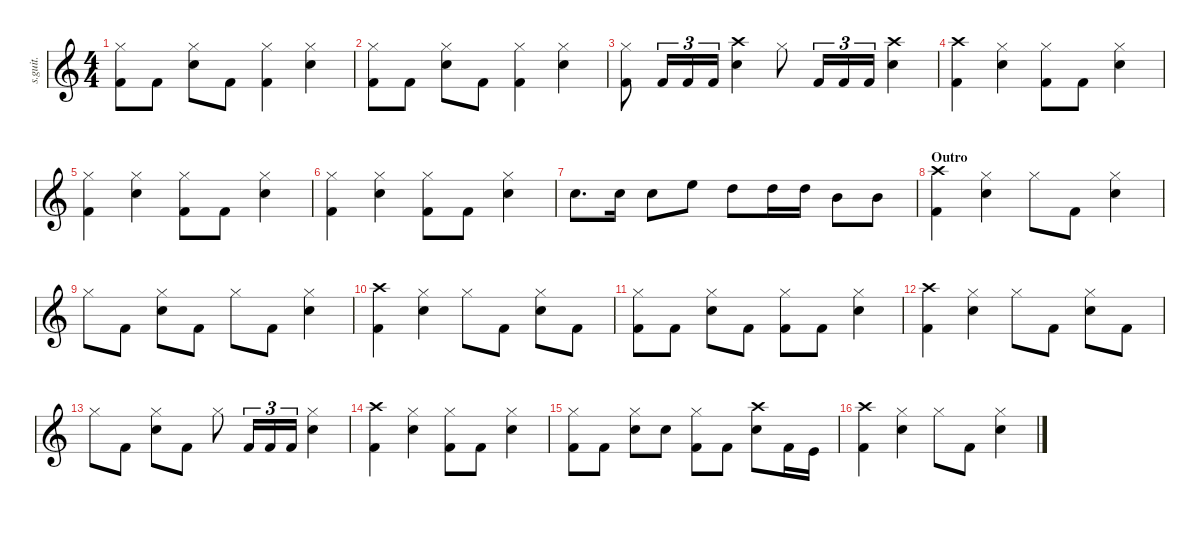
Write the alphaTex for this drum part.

\defaultSystemsLayout 4
\hideDynamics
\bracketExtendMode nobrackets
\track ("Lars Ulrich - Drumzzz" "s.guit.") {instrument percussion}
\staff {score}
\articulation defaults
\ts (4 4)
\tempo (142 hide)
\clef g2
\ks c
("Hi-Hat (closed)" "Kick (hit) 2").8{lyrics (0 "") lyrics (1 "") lyrics (2 "") lyrics (3 "") lyrics (4 "") dy f} "Kick (hit) 2".8{lyrics (0 "") lyrics (1 "") lyrics (2 "") lyrics (3 "") lyrics (4 "")} ("Hi-Hat (closed)" "Snare (hit) 2").8{lyrics (0 "") lyrics (1 "") lyrics (2 "") lyrics (3 "") lyrics (4 "")} "Kick (hit) 2".8{lyrics (0 "") lyrics (1 "") lyrics (2 "") lyrics (3 "") lyrics (4 "")} ("Hi-Hat (closed)" "Kick (hit) 2").4{lyrics (0 "") lyrics (1 "") lyrics (2 "") lyrics (3 "") lyrics (4 "")} ("Hi-Hat (closed)" "Snare (hit) 2").4{lyrics (0 "") lyrics (1 "") lyrics (2 "") lyrics (3 "") lyrics (4 "")} |
("Hi-Hat (closed)" "Kick (hit) 2").8{lyrics (0 "") lyrics (1 "") lyrics (2 "") lyrics (3 "") lyrics (4 "")} "Kick (hit) 2".8{lyrics (0 "") lyrics (1 "") lyrics (2 "") lyrics (3 "") lyrics (4 "")} ("Hi-Hat (closed)" "Snare (hit) 2").8{lyrics (0 "") lyrics (1 "") lyrics (2 "") lyrics (3 "") lyrics (4 "")} "Kick (hit) 2".8{lyrics (0 "") lyrics (1 "") lyrics (2 "") lyrics (3 "") lyrics (4 "")} ("Hi-Hat (closed)" "Kick (hit) 2").4{lyrics (0 "") lyrics (1 "") lyrics (2 "") lyrics (3 "") lyrics (4 "")} ("Hi-Hat (closed)" "Snare (hit) 2").4{lyrics (0 "") lyrics (1 "") lyrics (2 "") lyrics (3 "") lyrics (4 "")} |
("Hi-Hat (closed)" "Kick (hit) 2").8{lyrics (0 "") lyrics (1 "") lyrics (2 "") lyrics (3 "") lyrics (4 "")} "Kick (hit) 2".16{tu (3 2) lyrics (0 "") lyrics (1 "") lyrics (2 "") lyrics (3 "") lyrics (4 "")} "Kick (hit) 2".16{tu (3 2) lyrics (0 "") lyrics (1 "") lyrics (2 "") lyrics (3 "") lyrics (4 "")} "Kick (hit) 2".16{tu (3 2) lyrics (0 "") lyrics (1 "") lyrics (2 "") lyrics (3 "") lyrics (4 "")} ("Crash high (hit)" "Snare (hit) 2").4{lyrics (0 "") lyrics (1 "") lyrics (2 "") lyrics (3 "") lyrics (4 "")} "Hi-Hat (closed)".8{lyrics (0 "") lyrics (1 "") lyrics (2 "") lyrics (3 "") lyrics (4 "")} "Kick (hit) 2".16{tu (3 2) lyrics (0 "") lyrics (1 "") lyrics (2 "") lyrics (3 "") lyrics (4 "")} "Kick (hit) 2".16{tu (3 2) lyrics (0 "") lyrics (1 "") lyrics (2 "") lyrics (3 "") lyrics (4 "")} "Kick (hit) 2".16{tu (3 2) lyrics (0 "") lyrics (1 "") lyrics (2 "") lyrics (3 "") lyrics (4 "")} ("Crash high (hit)" "Snare (hit) 2").4{lyrics (0 "") lyrics (1 "") lyrics (2 "") lyrics (3 "") lyrics (4 "")} |
("Crash high (hit)" "Kick (hit) 2").4{lyrics (0 "") lyrics (1 "") lyrics (2 "") lyrics (3 "") lyrics (4 "")} ("Hi-Hat (closed)" "Snare (hit) 2").4{lyrics (0 "") lyrics (1 "") lyrics (2 "") lyrics (3 "") lyrics (4 "")} ("Hi-Hat (closed)" "Kick (hit) 2").8{lyrics (0 "") lyrics (1 "") lyrics (2 "") lyrics (3 "") lyrics (4 "")} "Kick (hit) 2".8{lyrics (0 "") lyrics (1 "") lyrics (2 "") lyrics (3 "") lyrics (4 "")} ("Hi-Hat (closed)" "Snare (hit) 2").4{lyrics (0 "") lyrics (1 "") lyrics (2 "") lyrics (3 "") lyrics (4 "")} |
("Hi-Hat (closed)" "Kick (hit) 2").4{lyrics (0 "") lyrics (1 "") lyrics (2 "") lyrics (3 "") lyrics (4 "")} ("Hi-Hat (closed)" "Snare (hit) 2").4{lyrics (0 "") lyrics (1 "") lyrics (2 "") lyrics (3 "") lyrics (4 "")} ("Hi-Hat (closed)" "Kick (hit) 2").8{lyrics (0 "") lyrics (1 "") lyrics (2 "") lyrics (3 "") lyrics (4 "")} "Kick (hit) 2".8{lyrics (0 "") lyrics (1 "") lyrics (2 "") lyrics (3 "") lyrics (4 "")} ("Hi-Hat (closed)" "Snare (hit) 2").4{lyrics (0 "") lyrics (1 "") lyrics (2 "") lyrics (3 "") lyrics (4 "")} |
("Hi-Hat (closed)" "Kick (hit) 2").4{lyrics (0 "") lyrics (1 "") lyrics (2 "") lyrics (3 "") lyrics (4 "")} ("Hi-Hat (closed)" "Snare (hit) 2").4{lyrics (0 "") lyrics (1 "") lyrics (2 "") lyrics (3 "") lyrics (4 "")} ("Hi-Hat (closed)" "Kick (hit) 2").8{lyrics (0 "") lyrics (1 "") lyrics (2 "") lyrics (3 "") lyrics (4 "")} "Kick (hit) 2".8{lyrics (0 "") lyrics (1 "") lyrics (2 "") lyrics (3 "") lyrics (4 "")} ("Hi-Hat (closed)" "Snare (hit) 2").4{lyrics (0 "") lyrics (1 "") lyrics (2 "") lyrics (3 "") lyrics (4 "")} |
"Snare (hit) 2".8{d lyrics (0 "") lyrics (1 "") lyrics (2 "") lyrics (3 "") lyrics (4 "")} "Snare (hit) 2".16{lyrics (0 "") lyrics (1 "") lyrics (2 "") lyrics (3 "") lyrics (4 "")} "Snare (hit) 2".8{lyrics (0 "") lyrics (1 "") lyrics (2 "") lyrics (3 "") lyrics (4 "")} "High Floor Tom (hit)".8{lyrics (0 "") lyrics (1 "") lyrics (2 "") lyrics (3 "") lyrics (4 "")} "High Tom (hit)".8{lyrics (0 "") lyrics (1 "") lyrics (2 "") lyrics (3 "") lyrics (4 "")} "High Tom (hit)".16{lyrics (0 "") lyrics (1 "") lyrics (2 "") lyrics (3 "") lyrics (4 "")} "High Tom (hit)".16{lyrics (0 "") lyrics (1 "") lyrics (2 "") lyrics (3 "") lyrics (4 "")} "Mid Tom (hit)".8{lyrics (0 "") lyrics (1 "") lyrics (2 "") lyrics (3 "") lyrics (4 "")} "Mid Tom (hit)".8{lyrics (0 "") lyrics (1 "") lyrics (2 "") lyrics (3 "") lyrics (4 "")} |
\section ("" "Outro")
("Crash high (hit)" "Kick (hit) 2").4{lyrics (0 "") lyrics (1 "") lyrics (2 "") lyrics (3 "") lyrics (4 "")} ("Hi-Hat (closed)" "Snare (hit) 2").4{lyrics (0 "") lyrics (1 "") lyrics (2 "") lyrics (3 "") lyrics (4 "")} "Hi-Hat (closed)".8{lyrics (0 "") lyrics (1 "") lyrics (2 "") lyrics (3 "") lyrics (4 "")} "Kick (hit) 2".8{lyrics (0 "") lyrics (1 "") lyrics (2 "") lyrics (3 "") lyrics (4 "")} ("Hi-Hat (closed)" "Snare (hit) 2").4{lyrics (0 "") lyrics (1 "") lyrics (2 "") lyrics (3 "") lyrics (4 "")} |
"Hi-Hat (closed)".8{lyrics (0 "") lyrics (1 "") lyrics (2 "") lyrics (3 "") lyrics (4 "")} "Kick (hit) 2".8{lyrics (0 "") lyrics (1 "") lyrics (2 "") lyrics (3 "") lyrics (4 "")} ("Hi-Hat (closed)" "Snare (hit) 2").8{lyrics (0 "") lyrics (1 "") lyrics (2 "") lyrics (3 "") lyrics (4 "")} "Kick (hit) 2".8{lyrics (0 "") lyrics (1 "") lyrics (2 "") lyrics (3 "") lyrics (4 "")} "Hi-Hat (closed)".8{lyrics (0 "") lyrics (1 "") lyrics (2 "") lyrics (3 "") lyrics (4 "")} "Kick (hit) 2".8{lyrics (0 "") lyrics (1 "") lyrics (2 "") lyrics (3 "") lyrics (4 "")} ("Hi-Hat (closed)" "Snare (hit) 2").4{lyrics (0 "") lyrics (1 "") lyrics (2 "") lyrics (3 "") lyrics (4 "")} |
("Crash high (hit)" "Kick (hit) 2").4{lyrics (0 "") lyrics (1 "") lyrics (2 "") lyrics (3 "") lyrics (4 "")} ("Hi-Hat (closed)" "Snare (hit) 2").4{lyrics (0 "") lyrics (1 "") lyrics (2 "") lyrics (3 "") lyrics (4 "")} "Hi-Hat (closed)".8{lyrics (0 "") lyrics (1 "") lyrics (2 "") lyrics (3 "") lyrics (4 "")} "Kick (hit) 2".8{lyrics (0 "") lyrics (1 "") lyrics (2 "") lyrics (3 "") lyrics (4 "")} ("Hi-Hat (closed)" "Snare (hit) 2").8{lyrics (0 "") lyrics (1 "") lyrics (2 "") lyrics (3 "") lyrics (4 "")} "Kick (hit) 2".8{lyrics (0 "") lyrics (1 "") lyrics (2 "") lyrics (3 "") lyrics (4 "")} |
("Hi-Hat (closed)" "Kick (hit) 2").8{lyrics (0 "") lyrics (1 "") lyrics (2 "") lyrics (3 "") lyrics (4 "")} "Kick (hit) 2".8{lyrics (0 "") lyrics (1 "") lyrics (2 "") lyrics (3 "") lyrics (4 "")} ("Hi-Hat (closed)" "Snare (hit) 2").8{lyrics (0 "") lyrics (1 "") lyrics (2 "") lyrics (3 "") lyrics (4 "")} "Kick (hit) 2".8{lyrics (0 "") lyrics (1 "") lyrics (2 "") lyrics (3 "") lyrics (4 "")} ("Hi-Hat (closed)" "Kick (hit) 2").8{lyrics (0 "") lyrics (1 "") lyrics (2 "") lyrics (3 "") lyrics (4 "")} "Kick (hit) 2".8{lyrics (0 "") lyrics (1 "") lyrics (2 "") lyrics (3 "") lyrics (4 "")} ("Hi-Hat (closed)" "Snare (hit) 2").4{lyrics (0 "") lyrics (1 "") lyrics (2 "") lyrics (3 "") lyrics (4 "")} |
("Crash high (hit)" "Kick (hit) 2").4{lyrics (0 "") lyrics (1 "") lyrics (2 "") lyrics (3 "") lyrics (4 "")} ("Hi-Hat (closed)" "Snare (hit) 2").4{lyrics (0 "") lyrics (1 "") lyrics (2 "") lyrics (3 "") lyrics (4 "")} "Hi-Hat (closed)".8{lyrics (0 "") lyrics (1 "") lyrics (2 "") lyrics (3 "") lyrics (4 "")} "Kick (hit) 2".8{lyrics (0 "") lyrics (1 "") lyrics (2 "") lyrics (3 "") lyrics (4 "")} ("Hi-Hat (closed)" "Snare (hit) 2").8{lyrics (0 "") lyrics (1 "") lyrics (2 "") lyrics (3 "") lyrics (4 "")} "Kick (hit) 2".8{lyrics (0 "") lyrics (1 "") lyrics (2 "") lyrics (3 "") lyrics (4 "")} |
"Hi-Hat (closed)".8{lyrics (0 "") lyrics (1 "") lyrics (2 "") lyrics (3 "") lyrics (4 "")} "Kick (hit) 2".8{lyrics (0 "") lyrics (1 "") lyrics (2 "") lyrics (3 "") lyrics (4 "")} ("Hi-Hat (closed)" "Snare (hit) 2").8{lyrics (0 "") lyrics (1 "") lyrics (2 "") lyrics (3 "") lyrics (4 "")} "Kick (hit) 2".8{lyrics (0 "") lyrics (1 "") lyrics (2 "") lyrics (3 "") lyrics (4 "")} "Hi-Hat (closed)".8{lyrics (0 "") lyrics (1 "") lyrics (2 "") lyrics (3 "") lyrics (4 "")} "Kick (hit) 2".16{tu (3 2) lyrics (0 "") lyrics (1 "") lyrics (2 "") lyrics (3 "") lyrics (4 "")} "Kick (hit) 2".16{tu (3 2) lyrics (0 "") lyrics (1 "") lyrics (2 "") lyrics (3 "") lyrics (4 "")} "Kick (hit) 2".16{tu (3 2) lyrics (0 "") lyrics (1 "") lyrics (2 "") lyrics (3 "") lyrics (4 "")} ("Hi-Hat (closed)" "Snare (hit) 2").4{lyrics (0 "") lyrics (1 "") lyrics (2 "") lyrics (3 "") lyrics (4 "")} |
("Crash high (hit)" "Kick (hit) 2").4{lyrics (0 "") lyrics (1 "") lyrics (2 "") lyrics (3 "") lyrics (4 "")} ("Hi-Hat (closed)" "Snare (hit) 2").4{lyrics (0 "") lyrics (1 "") lyrics (2 "") lyrics (3 "") lyrics (4 "")} ("Hi-Hat (closed)" "Kick (hit) 2").8{lyrics (0 "") lyrics (1 "") lyrics (2 "") lyrics (3 "") lyrics (4 "")} "Kick (hit) 2".8{lyrics (0 "") lyrics (1 "") lyrics (2 "") lyrics (3 "") lyrics (4 "")} ("Hi-Hat (closed)" "Snare (hit) 2").4{lyrics (0 "") lyrics (1 "") lyrics (2 "") lyrics (3 "") lyrics (4 "")} |
("Hi-Hat (closed)" "Kick (hit) 2").8{lyrics (0 "") lyrics (1 "") lyrics (2 "") lyrics (3 "") lyrics (4 "")} "Kick (hit) 2".8{lyrics (0 "") lyrics (1 "") lyrics (2 "") lyrics (3 "") lyrics (4 "")} ("Hi-Hat (closed)" "Snare (hit) 2").8{lyrics (0 "") lyrics (1 "") lyrics (2 "") lyrics (3 "") lyrics (4 "")} "Snare (hit) 2".8{lyrics (0 "") lyrics (1 "") lyrics (2 "") lyrics (3 "") lyrics (4 "")} ("Hi-Hat (closed)" "Kick (hit) 2").8{lyrics (0 "") lyrics (1 "") lyrics (2 "") lyrics (3 "") lyrics (4 "")} "Kick (hit) 2".8{lyrics (0 "") lyrics (1 "") lyrics (2 "") lyrics (3 "") lyrics (4 "")} ("Crash high (hit)" "Snare (hit) 2").8{lyrics (0 "") lyrics (1 "") lyrics (2 "") lyrics (3 "") lyrics (4 "")} "Kick (hit) 2".16{lyrics (0 "") lyrics (1 "") lyrics (2 "") lyrics (3 "") lyrics (4 "")} "Kick (hit)".16{lyrics (0 "") lyrics (1 "") lyrics (2 "") lyrics (3 "") lyrics (4 "")} |
("Crash high (hit)" "Kick (hit) 2").4{lyrics (0 "") lyrics (1 "") lyrics (2 "") lyrics (3 "") lyrics (4 "")} ("Hi-Hat (closed)" "Snare (hit) 2").4{lyrics (0 "") lyrics (1 "") lyrics (2 "") lyrics (3 "") lyrics (4 "")} "Hi-Hat (closed)".8{lyrics (0 "") lyrics (1 "") lyrics (2 "") lyrics (3 "") lyrics (4 "")} "Kick (hit) 2".8{lyrics (0 "") lyrics (1 "") lyrics (2 "") lyrics (3 "") lyrics (4 "")} ("Hi-Hat (closed)" "Snare (hit) 2").4{lyrics (0 "") lyrics (1 "") lyrics (2 "") lyrics (3 "") lyrics (4 "")}
